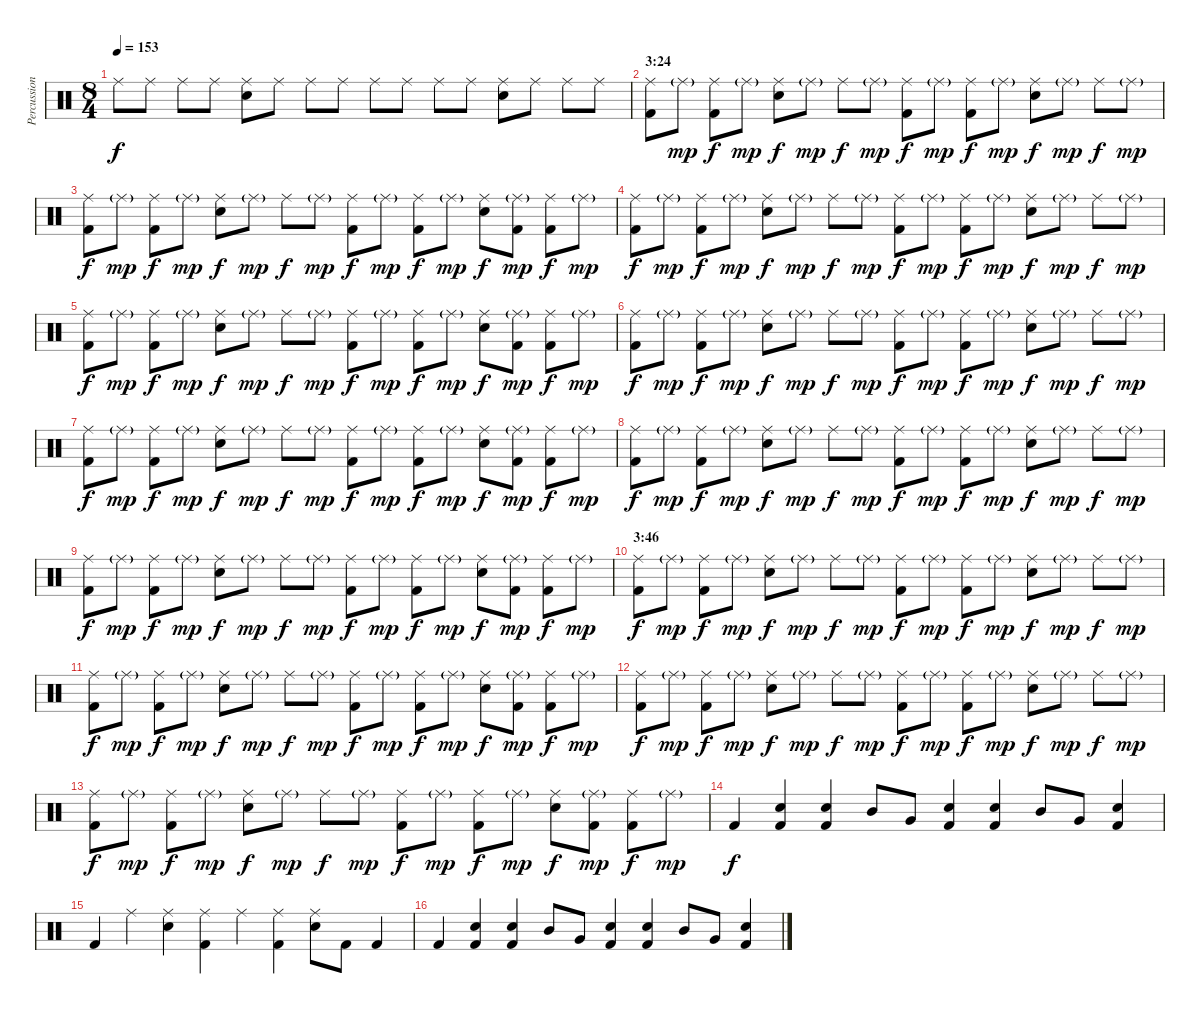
\track ("Percussion" "Percussion") {instrument percussion}
\staff {score}
\articulation defaults
\ts (8 4)
\tempo 153
\clef neutral
\ks c "Ride (middle)".8{dy f} "Ride (middle)".8 "Ride (middle)".8 "Ride (middle)".8
("Ride (middle)" "Snare (hit) 2").8 "Ride (middle)".8 "Ride (middle)".8 "Ride (middle)".8 "Ride (middle)".8 "Ride (middle)".8 "Ride (middle)".8 "Ride (middle)".8 ("Ride (middle)" "Snare (hit) 2").8 "Ride (middle)".8 "Ride (middle)".8 "Ride (middle)".8 |
\section ("" "3:24")
("Ride (middle)" "Kick (hit) 2").8 "Ride (middle)"{g}.8{dy mp} ("Ride (middle)" "Kick (hit) 2").8{dy f} "Ride (middle)"{g}.8{dy mp} ("Ride (middle)" "Snare (hit) 2").8{dy f} "Ride (middle)"{g}.8{dy mp} "Ride (middle)".8{dy f} "Ride (middle)"{g}.8{dy mp} ("Ride (middle)" "Kick (hit) 2").8{dy f} "Ride (middle)"{g}.8{dy mp} ("Ride (middle)" "Kick (hit) 2").8{dy f} "Ride (middle)"{g}.8{dy mp} ("Ride (middle)" "Snare (hit) 2").8{dy f} "Ride (middle)"{g}.8{dy mp} "Ride (middle)".8{dy f} "Ride (middle)"{g}.8{dy mp} |
("Ride (middle)" "Kick (hit) 2").8{dy f} "Ride (middle)"{g}.8{dy mp} ("Ride (middle)" "Kick (hit) 2").8{dy f} "Ride (middle)"{g}.8{dy mp} ("Ride (middle)" "Snare (hit) 2").8{dy f} "Ride (middle)"{g}.8{dy mp} "Ride (middle)".8{dy f} "Ride (middle)"{g}.8{dy mp} ("Ride (middle)" "Kick (hit) 2").8{dy f} "Ride (middle)"{g}.8{dy mp} ("Ride (middle)" "Kick (hit) 2").8{dy f} "Ride (middle)"{g}.8{dy mp} ("Ride (middle)" "Snare (hit) 2").8{dy f} ("Ride (middle)"{g} "Kick (hit) 2").8{dy mp} ("Ride (middle)" "Kick (hit) 2").8{dy f} "Ride (middle)"{g}.8{dy mp} |
("Ride (middle)" "Kick (hit) 2").8{dy f} "Ride (middle)"{g}.8{dy mp} ("Ride (middle)" "Kick (hit) 2").8{dy f} "Ride (middle)"{g}.8{dy mp} ("Ride (middle)" "Snare (hit) 2").8{dy f} "Ride (middle)"{g}.8{dy mp} "Ride (middle)".8{dy f} "Ride (middle)"{g}.8{dy mp} ("Ride (middle)" "Kick (hit) 2").8{dy f} "Ride (middle)"{g}.8{dy mp} ("Ride (middle)" "Kick (hit) 2").8{dy f} "Ride (middle)"{g}.8{dy mp} ("Ride (middle)" "Snare (hit) 2").8{dy f} "Ride (middle)"{g}.8{dy mp} "Ride (middle)".8{dy f} "Ride (middle)"{g}.8{dy mp} |
("Ride (middle)" "Kick (hit) 2").8{dy f} "Ride (middle)"{g}.8{dy mp} ("Ride (middle)" "Kick (hit) 2").8{dy f} "Ride (middle)"{g}.8{dy mp} ("Ride (middle)" "Snare (hit) 2").8{dy f} "Ride (middle)"{g}.8{dy mp} "Ride (middle)".8{dy f} "Ride (middle)"{g}.8{dy mp} ("Ride (middle)" "Kick (hit) 2").8{dy f} "Ride (middle)"{g}.8{dy mp} ("Ride (middle)" "Kick (hit) 2").8{dy f} "Ride (middle)"{g}.8{dy mp} ("Ride (middle)" "Snare (hit) 2").8{dy f} ("Ride (middle)"{g} "Kick (hit) 2").8{dy mp} ("Ride (middle)" "Kick (hit) 2").8{dy f} "Ride (middle)"{g}.8{dy mp} |
("Ride (middle)" "Kick (hit) 2").8{dy f} "Ride (middle)"{g}.8{dy mp} ("Ride (middle)" "Kick (hit) 2").8{dy f} "Ride (middle)"{g}.8{dy mp} ("Ride (middle)" "Snare (hit) 2").8{dy f} "Ride (middle)"{g}.8{dy mp} "Ride (middle)".8{dy f} "Ride (middle)"{g}.8{dy mp} ("Ride (middle)" "Kick (hit) 2").8{dy f} "Ride (middle)"{g}.8{dy mp} ("Ride (middle)" "Kick (hit) 2").8{dy f} "Ride (middle)"{g}.8{dy mp} ("Ride (middle)" "Snare (hit) 2").8{dy f} "Ride (middle)"{g}.8{dy mp} "Ride (middle)".8{dy f} "Ride (middle)"{g}.8{dy mp} |
("Ride (middle)" "Kick (hit) 2").8{dy f} "Ride (middle)"{g}.8{dy mp} ("Ride (middle)" "Kick (hit) 2").8{dy f} "Ride (middle)"{g}.8{dy mp} ("Ride (middle)" "Snare (hit) 2").8{dy f} "Ride (middle)"{g}.8{dy mp} "Ride (middle)".8{dy f} "Ride (middle)"{g}.8{dy mp} ("Ride (middle)" "Kick (hit) 2").8{dy f} "Ride (middle)"{g}.8{dy mp} ("Ride (middle)" "Kick (hit) 2").8{dy f} "Ride (middle)"{g}.8{dy mp} ("Ride (middle)" "Snare (hit) 2").8{dy f} ("Ride (middle)"{g} "Kick (hit) 2").8{dy mp} ("Ride (middle)" "Kick (hit) 2").8{dy f} "Ride (middle)"{g}.8{dy mp} |
("Ride (middle)" "Kick (hit) 2").8{dy f} "Ride (middle)"{g}.8{dy mp} ("Ride (middle)" "Kick (hit) 2").8{dy f} "Ride (middle)"{g}.8{dy mp} ("Ride (middle)" "Snare (hit) 2").8{dy f} "Ride (middle)"{g}.8{dy mp} "Ride (middle)".8{dy f} "Ride (middle)"{g}.8{dy mp} ("Ride (middle)" "Kick (hit) 2").8{dy f} "Ride (middle)"{g}.8{dy mp} ("Ride (middle)" "Kick (hit) 2").8{dy f} "Ride (middle)"{g}.8{dy mp} ("Ride (middle)" "Snare (hit) 2").8{dy f} "Ride (middle)"{g}.8{dy mp} "Ride (middle)".8{dy f} "Ride (middle)"{g}.8{dy mp} |
("Ride (middle)" "Kick (hit) 2").8{dy f} "Ride (middle)"{g}.8{dy mp} ("Ride (middle)" "Kick (hit) 2").8{dy f} "Ride (middle)"{g}.8{dy mp} ("Ride (middle)" "Snare (hit) 2").8{dy f} "Ride (middle)"{g}.8{dy mp} "Ride (middle)".8{dy f} "Ride (middle)"{g}.8{dy mp} ("Ride (middle)" "Kick (hit) 2").8{dy f} "Ride (middle)"{g}.8{dy mp} ("Ride (middle)" "Kick (hit) 2").8{dy f} "Ride (middle)"{g}.8{dy mp} ("Ride (middle)" "Snare (hit) 2").8{dy f} ("Ride (middle)"{g} "Kick (hit) 2").8{dy mp} ("Ride (middle)" "Kick (hit) 2").8{dy f} "Ride (middle)"{g}.8{dy mp} |
\section ("" "3:46")
("Ride (middle)" "Kick (hit) 2").8{dy f} "Ride (middle)"{g}.8{dy mp} ("Ride (middle)" "Kick (hit) 2").8{dy f} "Ride (middle)"{g}.8{dy mp} ("Ride (middle)" "Snare (hit) 2").8{dy f} "Ride (middle)"{g}.8{dy mp} "Ride (middle)".8{dy f} "Ride (middle)"{g}.8{dy mp} ("Ride (middle)" "Kick (hit) 2").8{dy f} "Ride (middle)"{g}.8{dy mp} ("Ride (middle)" "Kick (hit) 2").8{dy f} "Ride (middle)"{g}.8{dy mp} ("Ride (middle)" "Snare (hit) 2").8{dy f} "Ride (middle)"{g}.8{dy mp} "Ride (middle)".8{dy f} "Ride (middle)"{g}.8{dy mp} |
("Ride (middle)" "Kick (hit) 2").8{dy f} "Ride (middle)"{g}.8{dy mp} ("Ride (middle)" "Kick (hit) 2").8{dy f} "Ride (middle)"{g}.8{dy mp} ("Ride (middle)" "Snare (hit) 2").8{dy f} "Ride (middle)"{g}.8{dy mp} "Ride (middle)".8{dy f} "Ride (middle)"{g}.8{dy mp} ("Ride (middle)" "Kick (hit) 2").8{dy f} "Ride (middle)"{g}.8{dy mp} ("Ride (middle)" "Kick (hit) 2").8{dy f} "Ride (middle)"{g}.8{dy mp} ("Ride (middle)" "Snare (hit) 2").8{dy f} ("Ride (middle)"{g} "Kick (hit) 2").8{dy mp} ("Ride (middle)" "Kick (hit) 2").8{dy f} "Ride (middle)"{g}.8{dy mp} |
("Ride (middle)" "Kick (hit) 2").8{dy f} "Ride (middle)"{g}.8{dy mp} ("Ride (middle)" "Kick (hit) 2").8{dy f} "Ride (middle)"{g}.8{dy mp} ("Ride (middle)" "Snare (hit) 2").8{dy f} "Ride (middle)"{g}.8{dy mp} "Ride (middle)".8{dy f} "Ride (middle)"{g}.8{dy mp} ("Ride (middle)" "Kick (hit) 2").8{dy f} "Ride (middle)"{g}.8{dy mp} ("Ride (middle)" "Kick (hit) 2").8{dy f} "Ride (middle)"{g}.8{dy mp} ("Ride (middle)" "Snare (hit) 2").8{dy f} "Ride (middle)"{g}.8{dy mp} "Ride (middle)".8{dy f} "Ride (middle)"{g}.8{dy mp} |
("Ride (middle)" "Kick (hit) 2").8{dy f} "Ride (middle)"{g}.8{dy mp} ("Ride (middle)" "Kick (hit) 2").8{dy f} "Ride (middle)"{g}.8{dy mp} ("Ride (middle)" "Snare (hit) 2").8{dy f} "Ride (middle)"{g}.8{dy mp} "Ride (middle)".8{dy f} "Ride (middle)"{g}.8{dy mp} ("Ride (middle)" "Kick (hit) 2").8{dy f} "Ride (middle)"{g}.8{dy mp} ("Ride (middle)" "Kick (hit) 2").8{dy f} "Ride (middle)"{g}.8{dy mp} ("Ride (middle)" "Snare (hit) 2").8{dy f} ("Ride (middle)"{g} "Kick (hit) 2").8{dy mp} ("Ride (middle)" "Kick (hit) 2").8{dy f} "Ride (middle)"{g}.8{dy mp} |
"Kick (hit) 2".4{dy f} ("Snare (hit) 2" "Kick (hit) 2").4 ("Snare (hit) 2" "Kick (hit) 2").4 "Mid Tom (hit)".8 "Very Low Tom (hit)".8 ("Snare (hit) 2" "Kick (hit) 2").4 ("Snare (hit) 2" "Kick (hit) 2").4 "Mid Tom (hit)".8 "Very Low Tom (hit)".8 ("Snare (hit) 2" "Kick (hit) 2").4 |
"Kick (hit) 2".4 "Ride (middle)".4 ("Ride (middle)" "Snare (hit) 2").4 ("Ride (middle)" "Kick (hit) 2").4 "Ride (middle)".4 ("Ride (middle)" "Kick (hit) 2").4 ("Ride (middle)" "Snare (hit) 2").8 "Kick (hit) 2".8 "Kick (hit) 2".4 |
"Kick (hit) 2".4 ("Snare (hit) 2" "Kick (hit) 2").4 ("Snare (hit) 2" "Kick (hit) 2").4 "Mid Tom (hit)".8 "Very Low Tom (hit)".8 ("Snare (hit) 2" "Kick (hit) 2").4 ("Snare (hit) 2" "Kick (hit) 2").4 "Mid Tom (hit)".8 "Very Low Tom (hit)".8 ("Snare (hit) 2" "Kick (hit) 2").4
